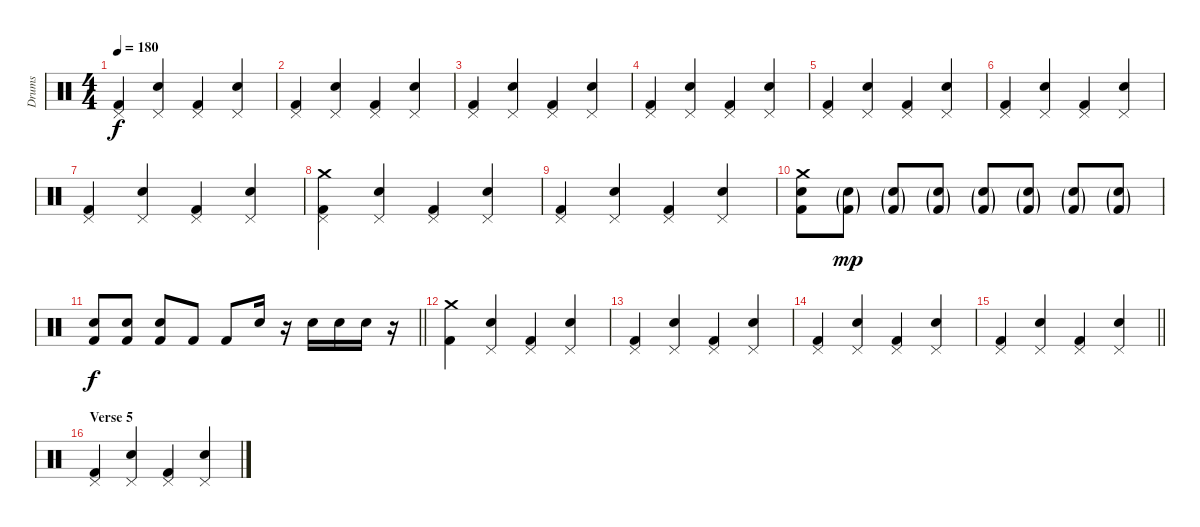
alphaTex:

\track ("Drums" "Drums") {instrument percussion}
\staff {score}
\articulation defaults
\ts (4 4)
\tempo 180
\clef neutral
\ks c
("Pedal Hi-Hat (hit)" "Kick (hit) 2").4{dy f} ("Pedal Hi-Hat (hit)" "Snare (hit) 2").4 ("Pedal Hi-Hat (hit)" "Kick (hit) 2").4 ("Pedal Hi-Hat (hit)" "Snare (hit) 2").4 |
("Pedal Hi-Hat (hit)" "Kick (hit) 2").4 ("Pedal Hi-Hat (hit)" "Snare (hit) 2").4 ("Pedal Hi-Hat (hit)" "Kick (hit) 2").4 ("Pedal Hi-Hat (hit)" "Snare (hit) 2").4 |
("Pedal Hi-Hat (hit)" "Kick (hit) 2").4 ("Pedal Hi-Hat (hit)" "Snare (hit) 2").4 ("Pedal Hi-Hat (hit)" "Kick (hit) 2").4 ("Pedal Hi-Hat (hit)" "Snare (hit) 2").4 |
("Pedal Hi-Hat (hit)" "Kick (hit) 2").4 ("Pedal Hi-Hat (hit)" "Snare (hit) 2").4 ("Pedal Hi-Hat (hit)" "Kick (hit) 2").4 ("Pedal Hi-Hat (hit)" "Snare (hit) 2").4 |
("Pedal Hi-Hat (hit)" "Kick (hit) 2").4 ("Pedal Hi-Hat (hit)" "Snare (hit) 2").4 ("Pedal Hi-Hat (hit)" "Kick (hit) 2").4 ("Pedal Hi-Hat (hit)" "Snare (hit) 2").4 |
("Pedal Hi-Hat (hit)" "Kick (hit) 2").4 ("Pedal Hi-Hat (hit)" "Snare (hit) 2").4 ("Pedal Hi-Hat (hit)" "Kick (hit) 2").4 ("Pedal Hi-Hat (hit)" "Snare (hit) 2").4 |
("Pedal Hi-Hat (hit)" "Kick (hit) 2").4 ("Pedal Hi-Hat (hit)" "Snare (hit) 2").4 ("Pedal Hi-Hat (hit)" "Kick (hit) 2").4 ("Pedal Hi-Hat (hit)" "Snare (hit) 2").4 |
("Pedal Hi-Hat (hit)" "Crash medium (hit)" "Kick (hit) 2").4 ("Pedal Hi-Hat (hit)" "Snare (hit) 2").4 ("Pedal Hi-Hat (hit)" "Kick (hit) 2").4 ("Pedal Hi-Hat (hit)" "Snare (hit) 2").4 |
("Pedal Hi-Hat (hit)" "Kick (hit) 2").4 ("Pedal Hi-Hat (hit)" "Snare (hit) 2").4 ("Pedal Hi-Hat (hit)" "Kick (hit) 2").4 ("Pedal Hi-Hat (hit)" "Snare (hit) 2").4 |
("Crash medium (hit)" "Snare (hit) 2" "Kick (hit) 2").8 ("Snare (hit) 2"{g} "Kick (hit) 2"{g}).8{dy mp} ("Snare (hit) 2"{g} "Kick (hit) 2"{g}).8 ("Snare (hit) 2"{g} "Kick (hit) 2"{g}).8 ("Snare (hit) 2"{g} "Kick (hit) 2"{g}).8 ("Snare (hit) 2"{g} "Kick (hit) 2"{g}).8 ("Snare (hit) 2"{g} "Kick (hit) 2"{g}).8 ("Snare (hit) 2"{g} "Kick (hit) 2"{g}).8 |
\barLineRight lightlight
("Snare (hit) 2" "Kick (hit) 2").8{dy f} ("Snare (hit) 2" "Kick (hit) 2").8 ("Snare (hit) 2" "Kick (hit) 2").8 "Kick (hit) 2".8 "Kick (hit) 2".8 "Snare (hit) 2".16 r.16 "Snare (hit) 2".16 "Snare (hit) 2".16 "Snare (hit) 2".16 r.16 |
("Crash medium (hit)" "Kick (hit) 2").4 ("Pedal Hi-Hat (hit)" "Snare (hit) 2").4 ("Pedal Hi-Hat (hit)" "Kick (hit) 2").4 ("Pedal Hi-Hat (hit)" "Snare (hit) 2").4 |
("Pedal Hi-Hat (hit)" "Kick (hit) 2").4 ("Pedal Hi-Hat (hit)" "Snare (hit) 2").4 ("Pedal Hi-Hat (hit)" "Kick (hit) 2").4 ("Pedal Hi-Hat (hit)" "Snare (hit) 2").4 |
("Pedal Hi-Hat (hit)" "Kick (hit) 2").4 ("Pedal Hi-Hat (hit)" "Snare (hit) 2").4 ("Pedal Hi-Hat (hit)" "Kick (hit) 2").4 ("Pedal Hi-Hat (hit)" "Snare (hit) 2").4 |
\barLineRight lightlight
("Pedal Hi-Hat (hit)" "Kick (hit) 2").4 ("Pedal Hi-Hat (hit)" "Snare (hit) 2").4 ("Pedal Hi-Hat (hit)" "Kick (hit) 2").4 ("Pedal Hi-Hat (hit)" "Snare (hit) 2").4 |
\section ("" "Verse 5")
("Pedal Hi-Hat (hit)" "Kick (hit) 2").4 ("Pedal Hi-Hat (hit)" "Snare (hit) 2").4 ("Pedal Hi-Hat (hit)" "Kick (hit) 2").4 ("Pedal Hi-Hat (hit)" "Snare (hit) 2").4
